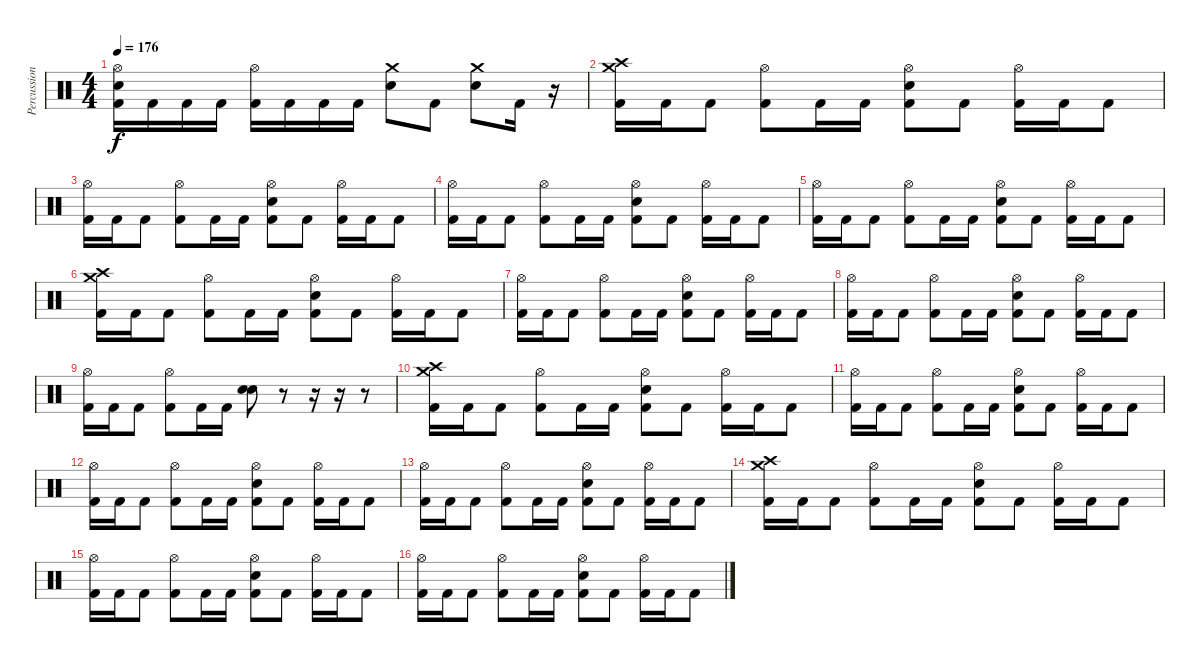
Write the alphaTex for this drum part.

\track ("Percussion" "Percussion") {instrument percussion}
\staff {score}
\articulation defaults
\ts (4 4)
\tempo 176
\clef neutral
\ks c
("Hi-Hat (open)" "Snare (hit) 2" "Kick (hit) 2").16{dy f} "Kick (hit) 2".16 "Kick (hit) 2".16 "Kick (hit) 2".16 ("Hi-Hat (open)" "Kick (hit) 2").16 "Kick (hit) 2".16 "Kick (hit) 2".16 "Kick (hit) 2".16 ("Crash medium (hit)" "Snare (hit) 2").8 "Kick (hit) 2".8 ("Crash medium (hit)" "Snare (hit) 2").8 "Kick (hit) 2".16 r.16 |
("Crash high (hit)" "Crash medium (hit)" "Kick (hit) 2").16 "Kick (hit) 2".16 "Kick (hit) 2".8 ("Hi-Hat (open)" "Kick (hit) 2").8 "Kick (hit) 2".16 "Kick (hit) 2".16 ("Hi-Hat (open)" "Snare (hit) 2" "Kick (hit) 2").8 "Kick (hit) 2".8 ("Hi-Hat (open)" "Kick (hit) 2").16 "Kick (hit) 2".16 "Kick (hit) 2".8 |
("Hi-Hat (open)" "Kick (hit) 2").16 "Kick (hit) 2".16 "Kick (hit) 2".8 ("Hi-Hat (open)" "Kick (hit) 2").8 "Kick (hit) 2".16 "Kick (hit) 2".16 ("Hi-Hat (open)" "Snare (hit) 2" "Kick (hit) 2").8 "Kick (hit) 2".8 ("Hi-Hat (open)" "Kick (hit) 2").16 "Kick (hit) 2".16 "Kick (hit) 2".8 |
("Hi-Hat (open)" "Kick (hit) 2").16 "Kick (hit) 2".16 "Kick (hit) 2".8 ("Hi-Hat (open)" "Kick (hit) 2").8 "Kick (hit) 2".16 "Kick (hit) 2".16 ("Hi-Hat (open)" "Snare (hit) 2" "Kick (hit) 2").8 "Kick (hit) 2".8 ("Hi-Hat (open)" "Kick (hit) 2").16 "Kick (hit) 2".16 "Kick (hit) 2".8 |
("Hi-Hat (open)" "Kick (hit) 2").16 "Kick (hit) 2".16 "Kick (hit) 2".8 ("Hi-Hat (open)" "Kick (hit) 2").8 "Kick (hit) 2".16 "Kick (hit) 2".16 ("Hi-Hat (open)" "Snare (hit) 2" "Kick (hit) 2").8 "Kick (hit) 2".8 ("Hi-Hat (open)" "Kick (hit) 2").16 "Kick (hit) 2".16 "Kick (hit) 2".8 |
("Crash high (hit)" "Crash medium (hit)" "Kick (hit) 2").16 "Kick (hit) 2".16 "Kick (hit) 2".8 ("Hi-Hat (open)" "Kick (hit) 2").8 "Kick (hit) 2".16 "Kick (hit) 2".16 ("Hi-Hat (open)" "Snare (hit) 2" "Kick (hit) 2").8 "Kick (hit) 2".8 ("Hi-Hat (open)" "Kick (hit) 2").16 "Kick (hit) 2".16 "Kick (hit) 2".8 |
("Hi-Hat (open)" "Kick (hit) 2").16 "Kick (hit) 2".16 "Kick (hit) 2".8 ("Hi-Hat (open)" "Kick (hit) 2").8 "Kick (hit) 2".16 "Kick (hit) 2".16 ("Hi-Hat (open)" "Snare (hit) 2" "Kick (hit) 2").8 "Kick (hit) 2".8 ("Hi-Hat (open)" "Kick (hit) 2").16 "Kick (hit) 2".16 "Kick (hit) 2".8 |
("Hi-Hat (open)" "Kick (hit) 2").16 "Kick (hit) 2".16 "Kick (hit) 2".8 ("Hi-Hat (open)" "Kick (hit) 2").8 "Kick (hit) 2".16 "Kick (hit) 2".16 ("Hi-Hat (open)" "Snare (hit) 2" "Kick (hit) 2").8 "Kick (hit) 2".8 ("Hi-Hat (open)" "Kick (hit) 2").16 "Kick (hit) 2".16 "Kick (hit) 2".8 |
("Hi-Hat (open)" "Kick (hit) 2").16 "Kick (hit) 2".16 "Kick (hit) 2".8 ("Hi-Hat (open)" "Kick (hit) 2").8 "Kick (hit) 2".16 "Kick (hit) 2".16 ("Snare (hit) 2" "Snare (hit) 2").8 r.8 r.16 r.16 r.8 |
("Crash high (hit)" "Crash medium (hit)" "Kick (hit) 2").16 "Kick (hit) 2".16 "Kick (hit) 2".8 ("Hi-Hat (open)" "Kick (hit) 2").8 "Kick (hit) 2".16 "Kick (hit) 2".16 ("Hi-Hat (open)" "Snare (hit) 2" "Kick (hit) 2").8 "Kick (hit) 2".8 ("Hi-Hat (open)" "Kick (hit) 2").16 "Kick (hit) 2".16 "Kick (hit) 2".8 |
("Hi-Hat (open)" "Kick (hit) 2").16 "Kick (hit) 2".16 "Kick (hit) 2".8 ("Hi-Hat (open)" "Kick (hit) 2").8 "Kick (hit) 2".16 "Kick (hit) 2".16 ("Hi-Hat (open)" "Snare (hit) 2" "Kick (hit) 2").8 "Kick (hit) 2".8 ("Hi-Hat (open)" "Kick (hit) 2").16 "Kick (hit) 2".16 "Kick (hit) 2".8 |
("Hi-Hat (open)" "Kick (hit) 2").16 "Kick (hit) 2".16 "Kick (hit) 2".8 ("Hi-Hat (open)" "Kick (hit) 2").8 "Kick (hit) 2".16 "Kick (hit) 2".16 ("Hi-Hat (open)" "Snare (hit) 2" "Kick (hit) 2").8 "Kick (hit) 2".8 ("Hi-Hat (open)" "Kick (hit) 2").16 "Kick (hit) 2".16 "Kick (hit) 2".8 |
("Hi-Hat (open)" "Kick (hit) 2").16 "Kick (hit) 2".16 "Kick (hit) 2".8 ("Hi-Hat (open)" "Kick (hit) 2").8 "Kick (hit) 2".16 "Kick (hit) 2".16 ("Hi-Hat (open)" "Snare (hit) 2" "Kick (hit) 2").8 "Kick (hit) 2".8 ("Hi-Hat (open)" "Kick (hit) 2").16 "Kick (hit) 2".16 "Kick (hit) 2".8 |
("Crash high (hit)" "Crash medium (hit)" "Kick (hit) 2").16 "Kick (hit) 2".16 "Kick (hit) 2".8 ("Hi-Hat (open)" "Kick (hit) 2").8 "Kick (hit) 2".16 "Kick (hit) 2".16 ("Hi-Hat (open)" "Snare (hit) 2" "Kick (hit) 2").8 "Kick (hit) 2".8 ("Hi-Hat (open)" "Kick (hit) 2").16 "Kick (hit) 2".16 "Kick (hit) 2".8 |
("Hi-Hat (open)" "Kick (hit) 2").16 "Kick (hit) 2".16 "Kick (hit) 2".8 ("Hi-Hat (open)" "Kick (hit) 2").8 "Kick (hit) 2".16 "Kick (hit) 2".16 ("Hi-Hat (open)" "Snare (hit) 2" "Kick (hit) 2").8 "Kick (hit) 2".8 ("Hi-Hat (open)" "Kick (hit) 2").16 "Kick (hit) 2".16 "Kick (hit) 2".8 |
("Hi-Hat (open)" "Kick (hit) 2").16 "Kick (hit) 2".16 "Kick (hit) 2".8 ("Hi-Hat (open)" "Kick (hit) 2").8 "Kick (hit) 2".16 "Kick (hit) 2".16 ("Hi-Hat (open)" "Snare (hit) 2" "Kick (hit) 2").8 "Kick (hit) 2".8 ("Hi-Hat (open)" "Kick (hit) 2").16 "Kick (hit) 2".16 "Kick (hit) 2".8
